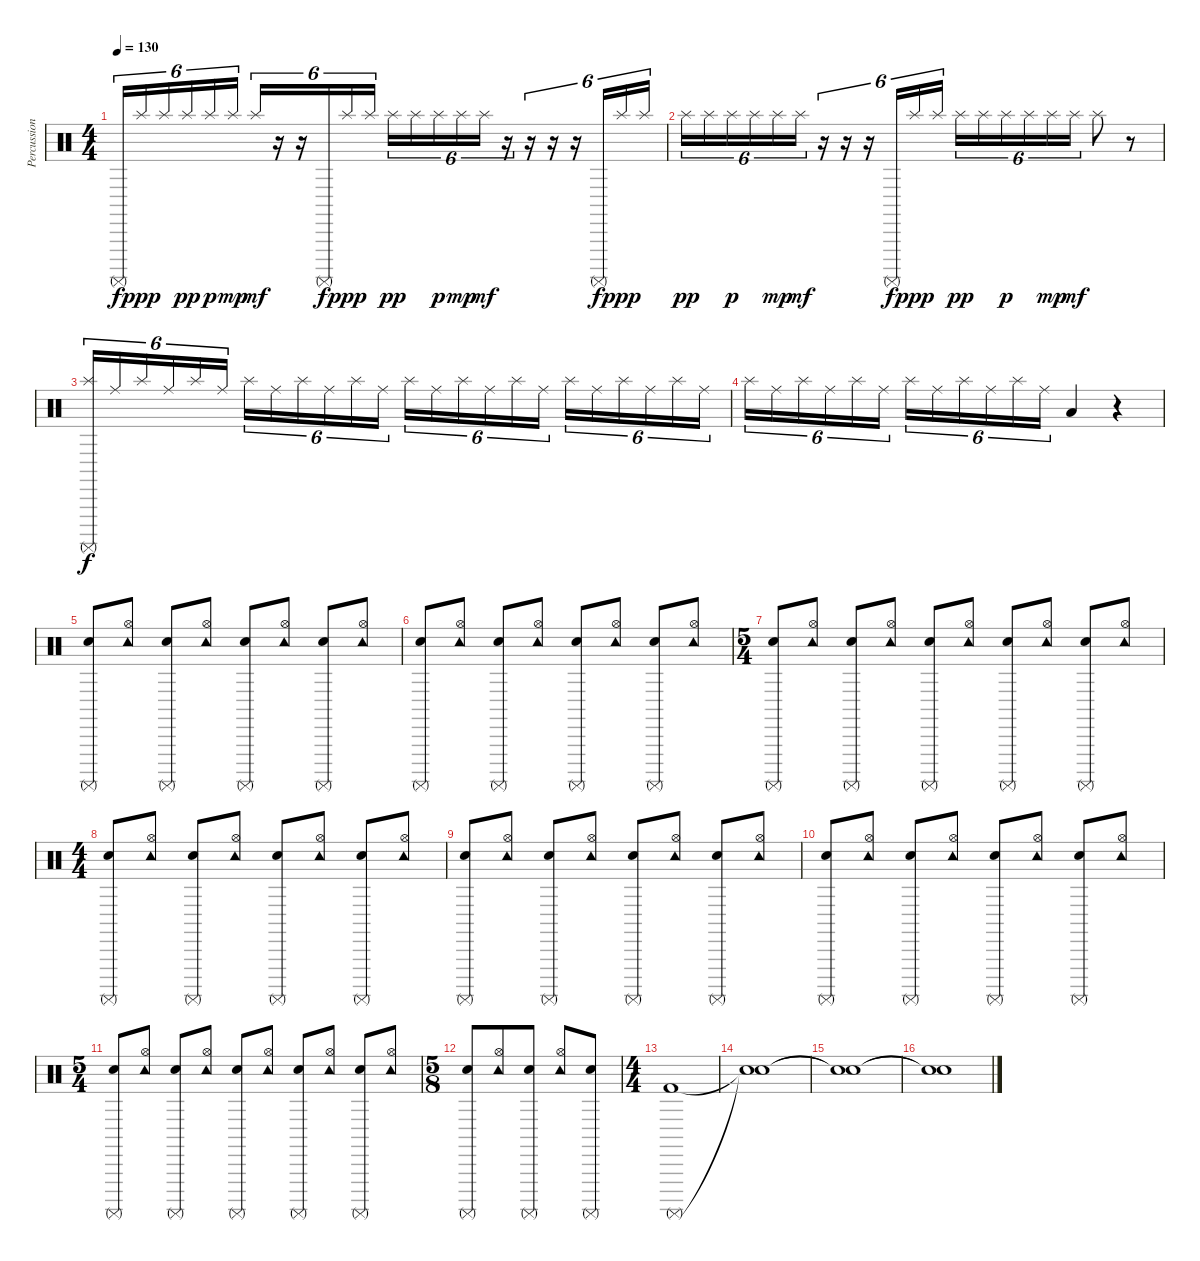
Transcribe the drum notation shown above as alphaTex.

\track ("Percussions" "Percussion") {instrument percussion}
\staff {score}
\articulation defaults
\ts (4 4)
\tempo 130
\clef neutral
\ks c "Surdo (mute)".16{tu (6 4) dy f} "Splash (hit)".16{tu (6 4) dy ppp} "Splash (hit)".16{tu (6 4)} "Splash (hit)".16{tu (6 4) dy pp} "Splash (hit)".16{tu (6 4) dy p} "Splash (hit)".16{tu (6 4) dy mp} "Splash (hit)".16{tu (6 4) dy mf}
r.16{tu (6 4)} r.16{tu (6 4)} "Surdo (mute)".16{tu (6 4) dy f} "Splash (hit)".16{tu (6 4) dy ppp} "Splash (hit)".16{tu (6 4)} "Splash (hit)".16{tu (6 4) dy pp} "Splash (hit)".16{tu (6 4)} "Splash (hit)".16{tu (6 4) dy p} "Splash (hit)".16{tu (6 4) dy mp} "Splash (hit)".16{tu (6 4) dy mf} r.16{tu (6 4)} r.16{tu (6 4)} r.16{tu (6 4)} r.16{tu (6 4)} "Surdo (mute)".16{tu (6 4) dy f} "Splash (hit)".16{tu (6 4) dy ppp} "Splash (hit)".16{tu (6 4)} |
"Splash (hit)".16{tu (6 4) dy pp} "Splash (hit)".16{tu (6 4)} "Splash (hit)".16{tu (6 4) dy p} "Splash (hit)".16{tu (6 4)} "Splash (hit)".16{tu (6 4) dy mp} "Splash (hit)".16{tu (6 4) dy mf} r.16{tu (6 4)} r.16{tu (6 4)} r.16{tu (6 4)} "Surdo (mute)".16{tu (6 4) dy f} "Splash (hit)".16{tu (6 4) dy ppp} "Splash (hit)".16{tu (6 4)} "Splash (hit)".16{tu (6 4) dy pp} "Splash (hit)".16{tu (6 4)} "Splash (hit)".16{tu (6 4) dy p} "Splash (hit)".16{tu (6 4)} "Splash (hit)".16{tu (6 4) dy mp} "Splash (hit)".16{tu (6 4) dy mf} "Splash (hit)".8 r.8 |
("Surdo (mute)" "Splash (hit)").16{tu (6 4) dy f} "Ride (middle)".16{tu (6 4)} "Splash (hit)".16{tu (6 4)} "Ride (middle)".16{tu (6 4)} "Splash (hit)".16{tu (6 4)} "Ride (middle)".16{tu (6 4)} "Splash (hit)".16{tu (6 4)} "Ride (middle)".16{tu (6 4)} "Splash (hit)".16{tu (6 4)} "Ride (middle)".16{tu (6 4)} "Splash (hit)".16{tu (6 4)} "Ride (middle)".16{tu (6 4)} "Splash (hit)".16{tu (6 4)} "Ride (middle)".16{tu (6 4)} "Splash (hit)".16{tu (6 4)} "Ride (middle)".16{tu (6 4)} "Splash (hit)".16{tu (6 4)} "Ride (middle)".16{tu (6 4)} "Splash (hit)".16{tu (6 4)} "Ride (middle)".16{tu (6 4)} "Splash (hit)".16{tu (6 4)} "Ride (middle)".16{tu (6 4)} "Splash (hit)".16{tu (6 4)} "Ride (middle)".16{tu (6 4)} |
"Splash (hit)".16{tu (6 4)} "Ride (middle)".16{tu (6 4)} "Splash (hit)".16{tu (6 4)} "Ride (middle)".16{tu (6 4)} "Splash (hit)".16{tu (6 4)} "Ride (middle)".16{tu (6 4)} "Splash (hit)".16{tu (6 4)} "Ride (middle)".16{tu (6 4)} "Splash (hit)".16{tu (6 4)} "Ride (middle)".16{tu (6 4)} "Splash (hit)".16{tu (6 4)} "Ride (middle)".16{tu (6 4)} "Low Floor Tom (hit)".4 r.4 |
("Surdo (mute)" "Hand Clap (hit)").8 ("Tambourine (hit)" "Hi-Hat (open)").8 ("Surdo (mute)" "Hand Clap (hit)").8 ("Tambourine (hit)" "Hi-Hat (open)").8 ("Surdo (mute)" "Hand Clap (hit)").8 ("Tambourine (hit)" "Hi-Hat (open)").8 ("Surdo (mute)" "Hand Clap (hit)").8 ("Tambourine (hit)" "Hi-Hat (open)").8 |
("Surdo (mute)" "Hand Clap (hit)").8 ("Tambourine (hit)" "Hi-Hat (open)").8 ("Surdo (mute)" "Hand Clap (hit)").8 ("Tambourine (hit)" "Hi-Hat (open)").8 ("Surdo (mute)" "Hand Clap (hit)").8 ("Tambourine (hit)" "Hi-Hat (open)").8 ("Surdo (mute)" "Hand Clap (hit)").8 ("Tambourine (hit)" "Hi-Hat (open)").8 |
\ts (5 4)
("Surdo (mute)" "Hand Clap (hit)").8 ("Tambourine (hit)" "Hi-Hat (open)").8 ("Surdo (mute)" "Hand Clap (hit)").8 ("Tambourine (hit)" "Hi-Hat (open)").8 ("Surdo (mute)" "Hand Clap (hit)").8 ("Tambourine (hit)" "Hi-Hat (open)").8 ("Surdo (mute)" "Hand Clap (hit)").8 ("Tambourine (hit)" "Hi-Hat (open)").8 ("Surdo (mute)" "Hand Clap (hit)").8 ("Tambourine (hit)" "Hi-Hat (open)").8 |
\ts (4 4)
("Surdo (mute)" "Hand Clap (hit)").8 ("Tambourine (hit)" "Hi-Hat (open)").8 ("Surdo (mute)" "Hand Clap (hit)").8 ("Tambourine (hit)" "Hi-Hat (open)").8 ("Surdo (mute)" "Hand Clap (hit)").8 ("Tambourine (hit)" "Hi-Hat (open)").8 ("Surdo (mute)" "Hand Clap (hit)").8 ("Tambourine (hit)" "Hi-Hat (open)").8 |
("Surdo (mute)" "Hand Clap (hit)").8 ("Tambourine (hit)" "Hi-Hat (open)").8 ("Surdo (mute)" "Hand Clap (hit)").8 ("Tambourine (hit)" "Hi-Hat (open)").8 ("Surdo (mute)" "Hand Clap (hit)").8 ("Tambourine (hit)" "Hi-Hat (open)").8 ("Surdo (mute)" "Hand Clap (hit)").8 ("Tambourine (hit)" "Hi-Hat (open)").8 |
("Surdo (mute)" "Hand Clap (hit)").8 ("Tambourine (hit)" "Hi-Hat (open)").8 ("Surdo (mute)" "Hand Clap (hit)").8 ("Tambourine (hit)" "Hi-Hat (open)").8 ("Surdo (mute)" "Hand Clap (hit)").8 ("Tambourine (hit)" "Hi-Hat (open)").8 ("Surdo (mute)" "Hand Clap (hit)").8 ("Tambourine (hit)" "Hi-Hat (open)").8 |
\ts (5 4)
("Surdo (mute)" "Hand Clap (hit)").8 ("Tambourine (hit)" "Hi-Hat (open)").8 ("Surdo (mute)" "Hand Clap (hit)").8 ("Tambourine (hit)" "Hi-Hat (open)").8 ("Surdo (mute)" "Hand Clap (hit)").8 ("Tambourine (hit)" "Hi-Hat (open)").8 ("Surdo (mute)" "Hand Clap (hit)").8 ("Tambourine (hit)" "Hi-Hat (open)").8 ("Surdo (mute)" "Hand Clap (hit)").8 ("Tambourine (hit)" "Hi-Hat (open)").8 |
\ts (5 8)
("Surdo (mute)" "Hand Clap (hit)").8 ("Tambourine (hit)" "Hi-Hat (open)").8 ("Surdo (mute)" "Hand Clap (hit)").8 ("Tambourine (hit)" "Hi-Hat (open)").8 ("Surdo (mute)" "Hand Clap (hit)").8 |
\ts (4 4)
("Surdo (mute)" "Kick (hit) 2").1 |
("Snare (hit)"{t} "Snare (hit)"{t}).1 |
("Snare (hit)"{t} "Snare (hit)"{t}).1 |
("Snare (hit)"{t} "Snare (hit)"{t}).1
